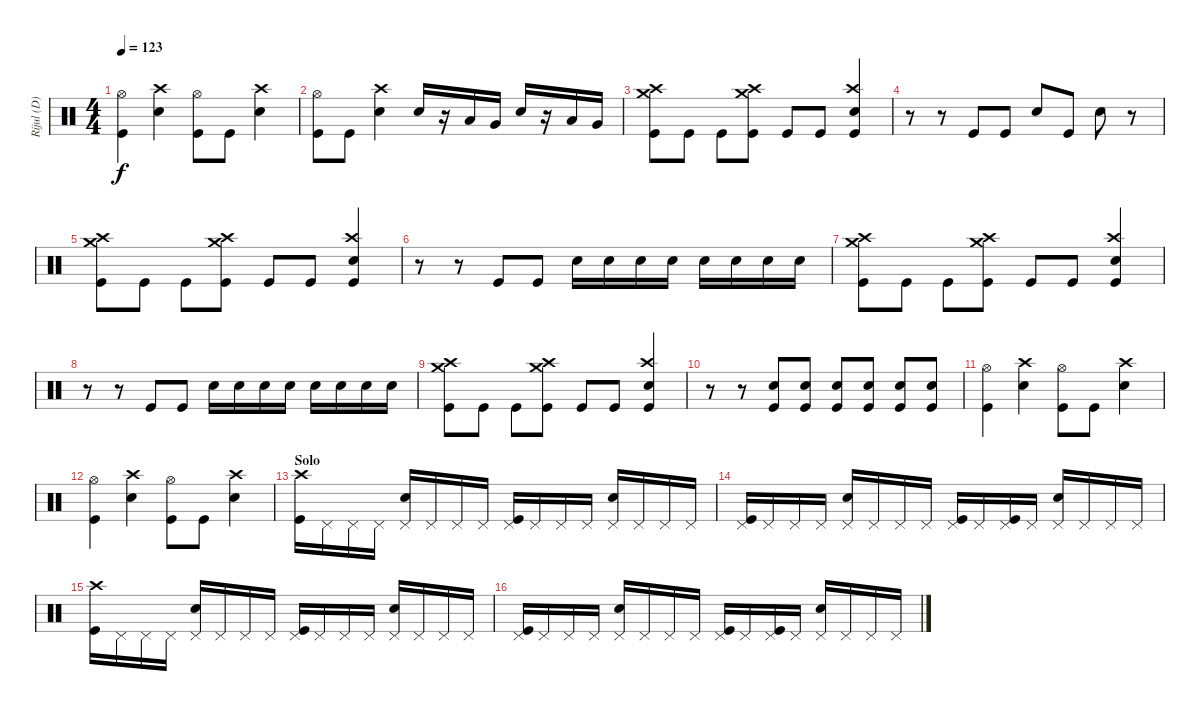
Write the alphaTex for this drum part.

\track ("Rijul (D)" "Rijul (D)") {instrument percussion}
\staff {score}
\articulation defaults
\ts (4 4)
\tempo 123
\clef neutral
\ks c
("Hi-Hat (open)" "Kick (hit)").4{dy f} ("Crash high (hit)" "Snare (hit) 2").4 ("Hi-Hat (open)" "Kick (hit)").8 "Kick (hit)".8 ("Crash high (hit)" "Snare (hit) 2").4 |
("Hi-Hat (open)" "Kick (hit)").8 "Kick (hit)".8 ("Crash high (hit)" "Snare (hit) 2").4 "Snare (hit) 2".16 r.16 "Low Tom (hit)".16 "Very Low Tom (hit)".16 "Snare (hit) 2".16 r.16 "Low Tom (hit)".16 "Very Low Tom (hit)".16 |
("Crash high (hit)" "Crash medium (hit)" "Kick (hit)").8 "Kick (hit)".8 "Kick (hit)".8 ("Crash high (hit)" "Crash medium (hit)" "Kick (hit)").8 "Kick (hit)".8 "Kick (hit)".8 ("Crash high (hit)" "Snare (hit) 2" "Kick (hit)").4 |
r.8 r.8 "Kick (hit)".8 "Kick (hit)".8 "Snare (hit) 2".8 "Kick (hit)".8 "Snare (hit) 2".8 r.8 |
("Crash high (hit)" "Crash medium (hit)" "Kick (hit)").8 "Kick (hit)".8 "Kick (hit)".8 ("Crash high (hit)" "Crash medium (hit)" "Kick (hit)").8 "Kick (hit)".8 "Kick (hit)".8 ("Crash high (hit)" "Snare (hit) 2" "Kick (hit)").4 |
r.8 r.8 "Kick (hit)".8 "Kick (hit)".8 "Snare (hit) 2".16 "Snare (hit) 2".16 "Snare (hit) 2".16 "Snare (hit) 2".16 "Snare (hit) 2".16 "Snare (hit) 2".16 "Snare (hit) 2".16 "Snare (hit) 2".16 |
("Crash high (hit)" "Crash medium (hit)" "Kick (hit)").8 "Kick (hit)".8 "Kick (hit)".8 ("Crash high (hit)" "Crash medium (hit)" "Kick (hit)").8 "Kick (hit)".8 "Kick (hit)".8 ("Crash high (hit)" "Snare (hit) 2" "Kick (hit)").4 |
r.8 r.8 "Kick (hit)".8 "Kick (hit)".8 "Snare (hit) 2".16 "Snare (hit) 2".16 "Snare (hit) 2".16 "Snare (hit) 2".16 "Snare (hit) 2".16 "Snare (hit) 2".16 "Snare (hit) 2".16 "Snare (hit) 2".16 |
("Crash high (hit)" "Crash medium (hit)" "Kick (hit)").8 "Kick (hit)".8 "Kick (hit)".8 ("Crash high (hit)" "Crash medium (hit)" "Kick (hit)").8 "Kick (hit)".8 "Kick (hit)".8 ("Crash high (hit)" "Snare (hit) 2" "Kick (hit)").4 |
r.8 r.8 ("Snare (hit) 2" "Kick (hit)").8 ("Snare (hit) 2" "Kick (hit)").8 ("Snare (hit) 2" "Kick (hit)").8 ("Snare (hit) 2" "Kick (hit)").8 ("Snare (hit) 2" "Kick (hit)").8 ("Snare (hit) 2" "Kick (hit)").8 |
("Hi-Hat (open)" "Kick (hit)").4 ("Crash high (hit)" "Snare (hit) 2").4 ("Hi-Hat (open)" "Kick (hit)").8 "Kick (hit)".8 ("Crash high (hit)" "Snare (hit) 2").4 |
("Hi-Hat (open)" "Kick (hit)").4 ("Crash high (hit)" "Snare (hit) 2").4 ("Hi-Hat (open)" "Kick (hit)").8 "Kick (hit)".8 ("Crash high (hit)" "Snare (hit) 2").4 |
\section ("" "Solo")
("Crash high (hit)" "Kick (hit)").16 "Pedal Hi-Hat (hit)".16 "Pedal Hi-Hat (hit)".16 "Pedal Hi-Hat (hit)".16 ("Pedal Hi-Hat (hit)" "Snare (hit) 2").16 "Pedal Hi-Hat (hit)".16 "Pedal Hi-Hat (hit)".16 "Pedal Hi-Hat (hit)".16 ("Pedal Hi-Hat (hit)" "Kick (hit)").16 "Pedal Hi-Hat (hit)".16 "Pedal Hi-Hat (hit)".16 "Pedal Hi-Hat (hit)".16 ("Pedal Hi-Hat (hit)" "Snare (hit) 2").16 "Pedal Hi-Hat (hit)".16 "Pedal Hi-Hat (hit)".16 "Pedal Hi-Hat (hit)".16 |
("Pedal Hi-Hat (hit)" "Kick (hit)").16 "Pedal Hi-Hat (hit)".16 "Pedal Hi-Hat (hit)".16 "Pedal Hi-Hat (hit)".16 ("Pedal Hi-Hat (hit)" "Snare (hit) 2").16 "Pedal Hi-Hat (hit)".16 "Pedal Hi-Hat (hit)".16 "Pedal Hi-Hat (hit)".16 ("Pedal Hi-Hat (hit)" "Kick (hit)").16 "Pedal Hi-Hat (hit)".16 ("Pedal Hi-Hat (hit)" "Kick (hit)").16 "Pedal Hi-Hat (hit)".16 ("Pedal Hi-Hat (hit)" "Snare (hit) 2").16 "Pedal Hi-Hat (hit)".16 "Pedal Hi-Hat (hit)".16 "Pedal Hi-Hat (hit)".16 |
("Crash high (hit)" "Kick (hit)").16 "Pedal Hi-Hat (hit)".16 "Pedal Hi-Hat (hit)".16 "Pedal Hi-Hat (hit)".16 ("Pedal Hi-Hat (hit)" "Snare (hit) 2").16 "Pedal Hi-Hat (hit)".16 "Pedal Hi-Hat (hit)".16 "Pedal Hi-Hat (hit)".16 ("Pedal Hi-Hat (hit)" "Kick (hit)").16 "Pedal Hi-Hat (hit)".16 "Pedal Hi-Hat (hit)".16 "Pedal Hi-Hat (hit)".16 ("Pedal Hi-Hat (hit)" "Snare (hit) 2").16 "Pedal Hi-Hat (hit)".16 "Pedal Hi-Hat (hit)".16 "Pedal Hi-Hat (hit)".16 |
("Pedal Hi-Hat (hit)" "Kick (hit)").16 "Pedal Hi-Hat (hit)".16 "Pedal Hi-Hat (hit)".16 "Pedal Hi-Hat (hit)".16 ("Pedal Hi-Hat (hit)" "Snare (hit) 2").16 "Pedal Hi-Hat (hit)".16 "Pedal Hi-Hat (hit)".16 "Pedal Hi-Hat (hit)".16 ("Pedal Hi-Hat (hit)" "Kick (hit)").16 "Pedal Hi-Hat (hit)".16 ("Pedal Hi-Hat (hit)" "Kick (hit)").16 "Pedal Hi-Hat (hit)".16 ("Pedal Hi-Hat (hit)" "Snare (hit) 2").16 "Pedal Hi-Hat (hit)".16 "Pedal Hi-Hat (hit)".16 "Pedal Hi-Hat (hit)".16
